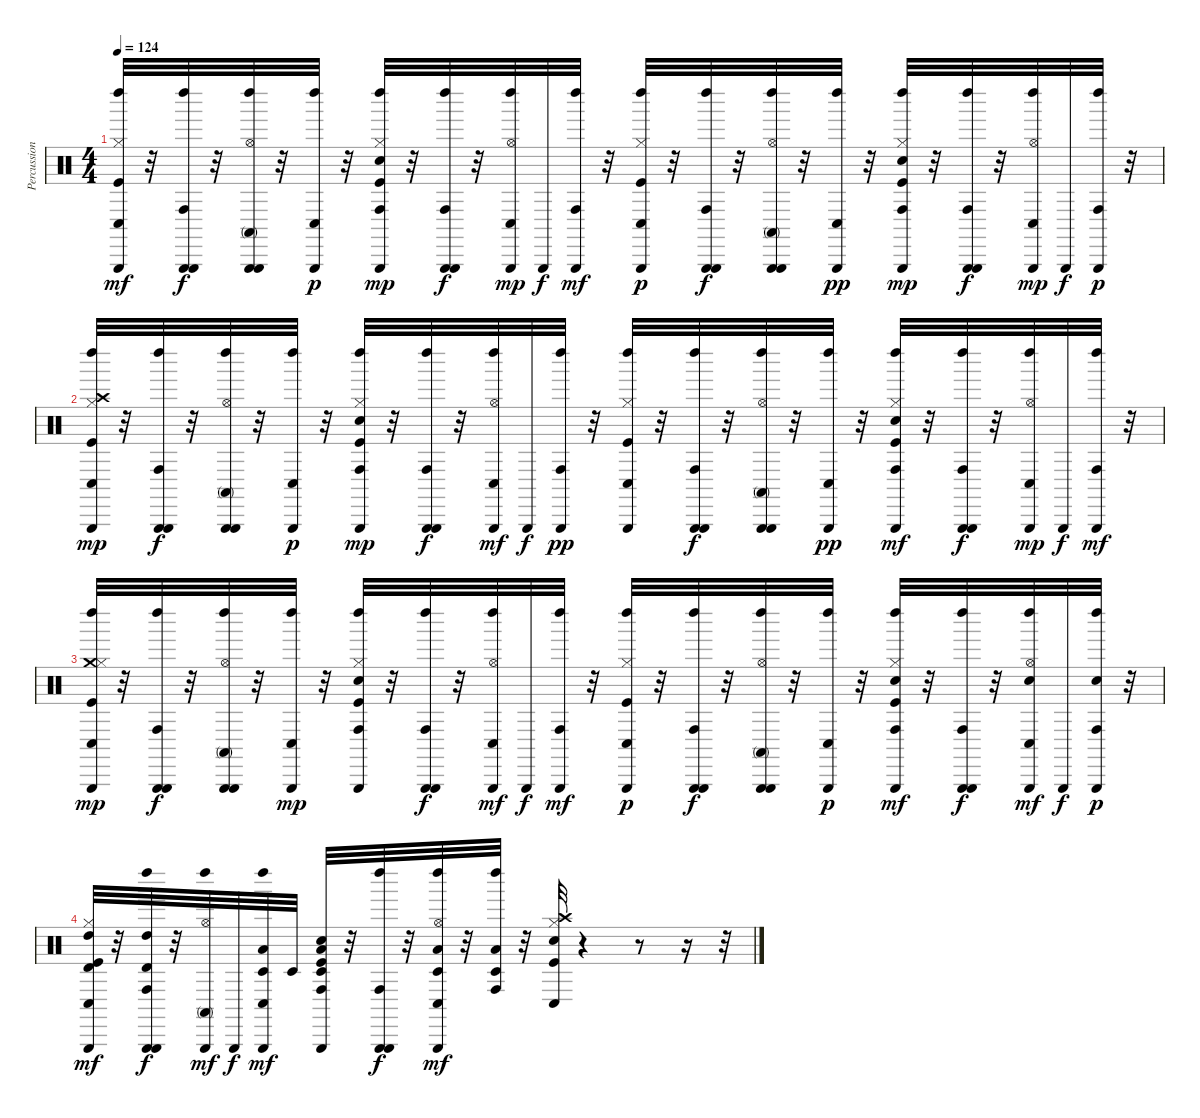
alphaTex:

\track ("Percussion" "Percussion") {instrument percussion}
\staff {score}
\articulation defaults
\ts (4 4)
\tempo 124
\clef neutral
\ks c
("Conga low (hit)" "Triangle (hit)" "Kick (hit)" "Left Maraca (hit)" "Hi-Hat (closed)").32{dy mf} r.32 ("Triangle (hit)" "Left Maraca (hit)" "Conga high (hit)" "Triangle (hit)").32{dy f} r.32 ("Triangle (hit)" "Hi-Hat (open)" "Left Maraca (hit)" "Conga high (mute)" "Triangle (hit)").32 r.32 ("Triangle (hit)" "Left Maraca (hit)" "Conga low (hit)").32{dy p} r.32 ("Triangle (hit)" "Kick (hit)" "Snare (hit) 2" "Hi-Hat (closed)" "Conga high (hit)" "Left Maraca (hit)").32{dy mp} r.32 ("Conga high (hit)" "Triangle (hit)" "Left Maraca (hit)" "Triangle (hit)").32{dy f} r.32 ("Conga low (hit)" "Triangle (hit)" "Left Maraca (hit)" "Hi-Hat (open)").32{dy mp} "Triangle (hit)".32{dy f} ("Triangle (hit)" "Left Maraca (hit)" "Conga high (hit)").32{dy mf} r.32 ("Hi-Hat (closed)" "Conga low (hit)" "Triangle (hit)" "Kick (hit)" "Left Maraca (hit)").32{dy p} r.32 ("Triangle (hit)" "Conga high (hit)" "Left Maraca (hit)" "Triangle (hit)").32{dy f} r.32 ("Triangle (hit)" "Conga high (mute)" "Hi-Hat (open)" "Left Maraca (hit)" "Triangle (hit)").32 r.32 ("Triangle (hit)" "Conga low (hit)" "Left Maraca (hit)").32{dy pp} r.32 ("Triangle (hit)" "Kick (hit)" "Snare (hit) 2" "Left Maraca (hit)" "Hi-Hat (closed)" "Conga high (hit)").32{dy mp} r.32 ("Triangle (hit)" "Conga high (hit)" "Left Maraca (hit)" "Triangle (hit)").32{dy f} r.32 ("Triangle (hit)" "Left Maraca (hit)" "Hi-Hat (open)" "Conga low (hit)").32{dy mp} "Triangle (hit)".32{dy f} ("Triangle (hit)" "Conga high (hit)" "Left Maraca (hit)").32{dy p} r.32 |
("Triangle (hit)" "Kick (hit)" "Crash high (hit)" "Hi-Hat (closed)" "Conga low (hit)" "Left Maraca (hit)").32{dy mp} r.32 ("Triangle (hit)" "Left Maraca (hit)" "Conga high (hit)" "Triangle (hit)").32{dy f} r.32 ("Triangle (hit)" "Left Maraca (hit)" "Hi-Hat (open)" "Conga high (mute)" "Triangle (hit)").32 r.32 ("Left Maraca (hit)" "Triangle (hit)" "Conga low (hit)").32{dy p} r.32 ("Triangle (hit)" "Hi-Hat (closed)" "Kick (hit)" "Snare (hit) 2" "Conga high (hit)" "Left Maraca (hit)").32{dy mp} r.32 ("Left Maraca (hit)" "Triangle (hit)" "Conga high (hit)" "Triangle (hit)").32{dy f} r.32 ("Triangle (hit)" "Hi-Hat (open)" "Left Maraca (hit)" "Conga low (hit)").32{dy mf} "Triangle (hit)".32{dy f} ("Triangle (hit)" "Conga high (hit)" "Left Maraca (hit)").32{dy pp} r.32 ("Triangle (hit)" "Kick (hit)" "Hi-Hat (closed)" "Left Maraca (hit)" "Conga low (hit)").32 r.32 ("Triangle (hit)" "Conga high (hit)" "Left Maraca (hit)" "Triangle (hit)").32{dy f} r.32 ("Hi-Hat (open)" "Triangle (hit)" "Conga high (mute)" "Left Maraca (hit)" "Triangle (hit)").32 r.32 ("Triangle (hit)" "Conga low (hit)" "Left Maraca (hit)").32{dy pp} r.32 ("Hi-Hat (closed)" "Triangle (hit)" "Kick (hit)" "Snare (hit) 2" "Left Maraca (hit)" "Conga high (hit)").32{dy mf} r.32 ("Triangle (hit)" "Conga high (hit)" "Left Maraca (hit)" "Triangle (hit)").32{dy f} r.32 ("Triangle (hit)" "Hi-Hat (open)" "Conga low (hit)" "Left Maraca (hit)").32{dy mp} "Triangle (hit)".32{dy f} ("Left Maraca (hit)" "Triangle (hit)" "Conga high (hit)").32{dy mf} r.32 |
("Triangle (hit)" "Kick (hit)" "Crash medium (hit)" "Hi-Hat (closed)" "Conga low (hit)" "Left Maraca (hit)").32{dy mp} r.32 ("Conga high (hit)" "Triangle (hit)" "Left Maraca (hit)" "Triangle (hit)").32{dy f} r.32 ("Triangle (hit)" "Hi-Hat (open)" "Conga high (mute)" "Left Maraca (hit)" "Triangle (hit)").32 r.32 ("Conga low (hit)" "Left Maraca (hit)" "Triangle (hit)").32{dy mp} r.32 ("Triangle (hit)" "Conga high (hit)" "Kick (hit)" "Snare (hit) 2" "Hi-Hat (closed)" "Left Maraca (hit)").32 r.32 ("Left Maraca (hit)" "Triangle (hit)" "Conga high (hit)" "Triangle (hit)").32{dy f} r.32 ("Left Maraca (hit)" "Triangle (hit)" "Hi-Hat (open)" "Conga low (hit)").32{dy mf} "Triangle (hit)".32{dy f} ("Triangle (hit)" "Left Maraca (hit)" "Conga high (hit)").32{dy mf} r.32 ("Triangle (hit)" "Kick (hit)" "Hi-Hat (closed)" "Conga low (hit)" "Left Maraca (hit)").32{dy p} r.32 ("Triangle (hit)" "Conga high (hit)" "Left Maraca (hit)" "Triangle (hit)").32{dy f} r.32 ("Left Maraca (hit)" "Triangle (hit)" "Hi-Hat (open)" "Conga high (mute)" "Triangle (hit)").32 r.32 ("Triangle (hit)" "Left Maraca (hit)" "Conga low (hit)").32{dy p} r.32 ("Hi-Hat (closed)" "Left Maraca (hit)" "Triangle (hit)" "Kick (hit)" "Snare (hit) 2" "Conga high (hit)").32{dy mf} r.32 ("Triangle (hit)" "Left Maraca (hit)" "Conga high (hit)" "Triangle (hit)").32{dy f} r.32 ("Left Maraca (hit)" "Triangle (hit)" "Snare (hit) 2" "Hi-Hat (open)" "Conga low (hit)").32{dy mf} "Triangle (hit)".32{dy f} ("Triangle (hit)" "Snare (hit) 2" "Conga high (hit)" "Left Maraca (hit)").32{dy p} r.32 |
("High Tom (hit)" "Conga low (hit)" "Triangle (hit)" "Kick (hit)" "Timbale high (hit)" "Hi-Hat (closed)").32{dy mf} r.32 ("Triangle (hit)" "High Tom (hit)" "Conga high (hit)" "Timbale high (hit)" "Left Maraca (hit)" "Triangle (hit)").32{dy f} r.32 ("Triangle (hit)" "Hi-Hat (open)" "Conga high (mute)" "Left Maraca (hit)").32{dy mf} "Triangle (hit)".32{dy f} ("Triangle (hit)" "Low Tom (hit)" "Left Maraca (hit)" "Conga low (hit)" "Timbale low (hit)").32{dy mf} "Timbale low (hit)".32 ("Triangle (hit)" "Timbale low (hit)" "Kick (hit)" "Snare (hit) 2" "Low Tom (hit)" "Conga high (hit)").32 r.32 ("Triangle (hit)" "Conga high (hit)" "Left Maraca (hit)" "Triangle (hit)").32{dy f} r.32 ("Triangle (hit)" "Hi-Hat (open)" "Conga low (hit)" "Left Maraca (hit)" "Low Tom (hit)" "Timbale low (hit)").32{dy mf} r.32 ("Low Tom (hit)" "Timbale low (hit)" "Left Maraca (hit)" "Conga high (hit)").32 r.32 ("Hi-Hat (closed)" "Kick (hit)" "Snare (hit) 2" "Crash high (hit)" "Conga low (hit)").32 r.4 r.8 r.16 r.32
